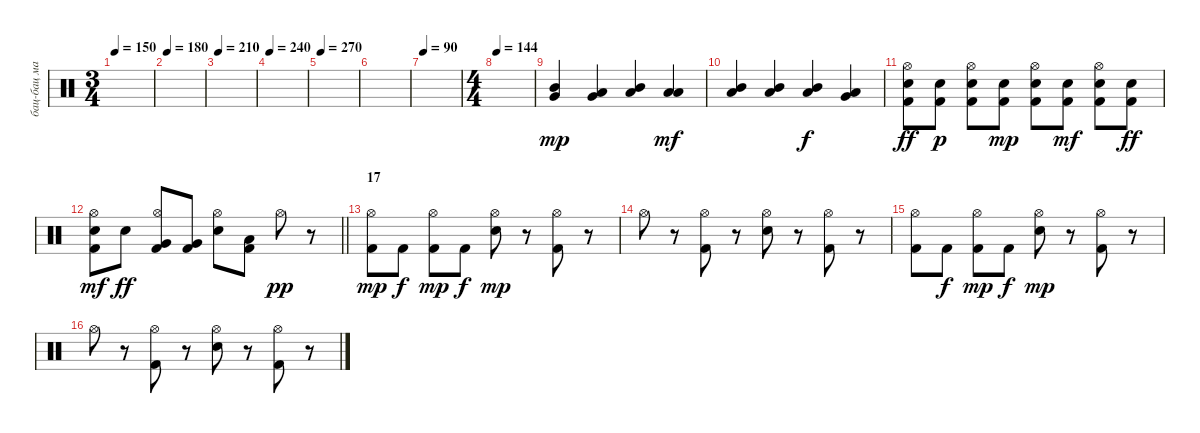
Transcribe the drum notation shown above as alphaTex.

\track ("бац-бац машина" "бац-бац ма") {instrument percussion}
\staff {score}
\articulation defaults
\ts (3 4)
\tempo 150
\clef neutral
\ks c
|
\tempo 180
|
\tempo 210
|
\tempo 240
|
\tempo 270
|
|
\tempo 90
|
\ts (4 4)
\tempo 144
|
("Very Low Tom (hit)" "Mid Tom (hit)").4{dy mp} ("Low Floor Tom (hit)" "Very Low Tom (hit)").4 ("Low Tom (hit)" "Mid Tom (hit)").4 ("Low Floor Tom (hit)" "Low Tom (hit)").4{dy mf} |
("Low Tom (hit)" "Mid Tom (hit)").4 ("Low Floor Tom (hit)" "Mid Tom (hit)").4 ("Low Tom (hit)" "Mid Tom (hit)").4{dy f} ("Low Floor Tom (hit)" "Very Low Tom (hit)").4 |
("Hi-Hat (open)" "Snare (hit) 2" "Kick (hit) 2").8{dy ff} ("Electric Snare (hit)" "Kick (hit) 2").8{dy p} ("Hi-Hat (open)" "Electric Snare (hit)" "Kick (hit) 2").8 ("Electric Snare (hit)" "Kick (hit) 2").8{dy mp} ("Hi-Hat (open)" "Electric Snare (hit)" "Kick (hit) 2").8 ("Electric Snare (hit)" "Kick (hit) 2").8{dy mf} ("Hi-Hat (open)" "Electric Snare (hit)" "Kick (hit) 2").8 ("Electric Snare (hit)" "Kick (hit) 2").8{dy ff} |
\barLineRight lightlight
("Hi-Hat (open)" "Electric Snare (hit)" "Kick (hit) 2").8{dy mf} "Snare (hit) 2".8{dy ff} ("Hi-Hat (open)" "Very Low Tom (hit)" "Kick (hit) 2").8 ("Very Low Tom (hit)" "Kick (hit) 2").8 ("Hi-Hat (open)" "Snare (hit) 2").8 ("Low Tom (hit)" "Kick (hit) 2").8 "Hi-Hat (open)".8{dy pp} r.8 |
\section ("" "17")
("Hi-Hat (open)" "Kick (hit) 2").8{dy mp} "Kick (hit) 2".8{dy f} ("Hi-Hat (open)" "Kick (hit) 2").8{dy mp} "Kick (hit) 2".8{dy f} ("Hi-Hat (open)" "Snare (hit) 2").8{dy mp} r.8 ("Hi-Hat (open)" "Kick (hit) 2").8 r.8 |
"Hi-Hat (open)".8 r.8 ("Hi-Hat (open)" "Kick (hit) 2").8 r.8 ("Hi-Hat (open)" "Snare (hit) 2").8 r.8 ("Hi-Hat (open)" "Kick (hit) 2").8 r.8 |
("Hi-Hat (open)" "Kick (hit) 2").8 "Kick (hit) 2".8{dy f} ("Hi-Hat (open)" "Kick (hit) 2").8{dy mp} "Kick (hit) 2".8{dy f} ("Hi-Hat (open)" "Snare (hit) 2").8{dy mp} r.8 ("Hi-Hat (open)" "Kick (hit) 2").8 r.8 |
"Hi-Hat (open)".8 r.8 ("Hi-Hat (open)" "Kick (hit) 2").8 r.8 ("Hi-Hat (open)" "Snare (hit) 2").8 r.8 ("Hi-Hat (open)" "Kick (hit) 2").8 r.8
